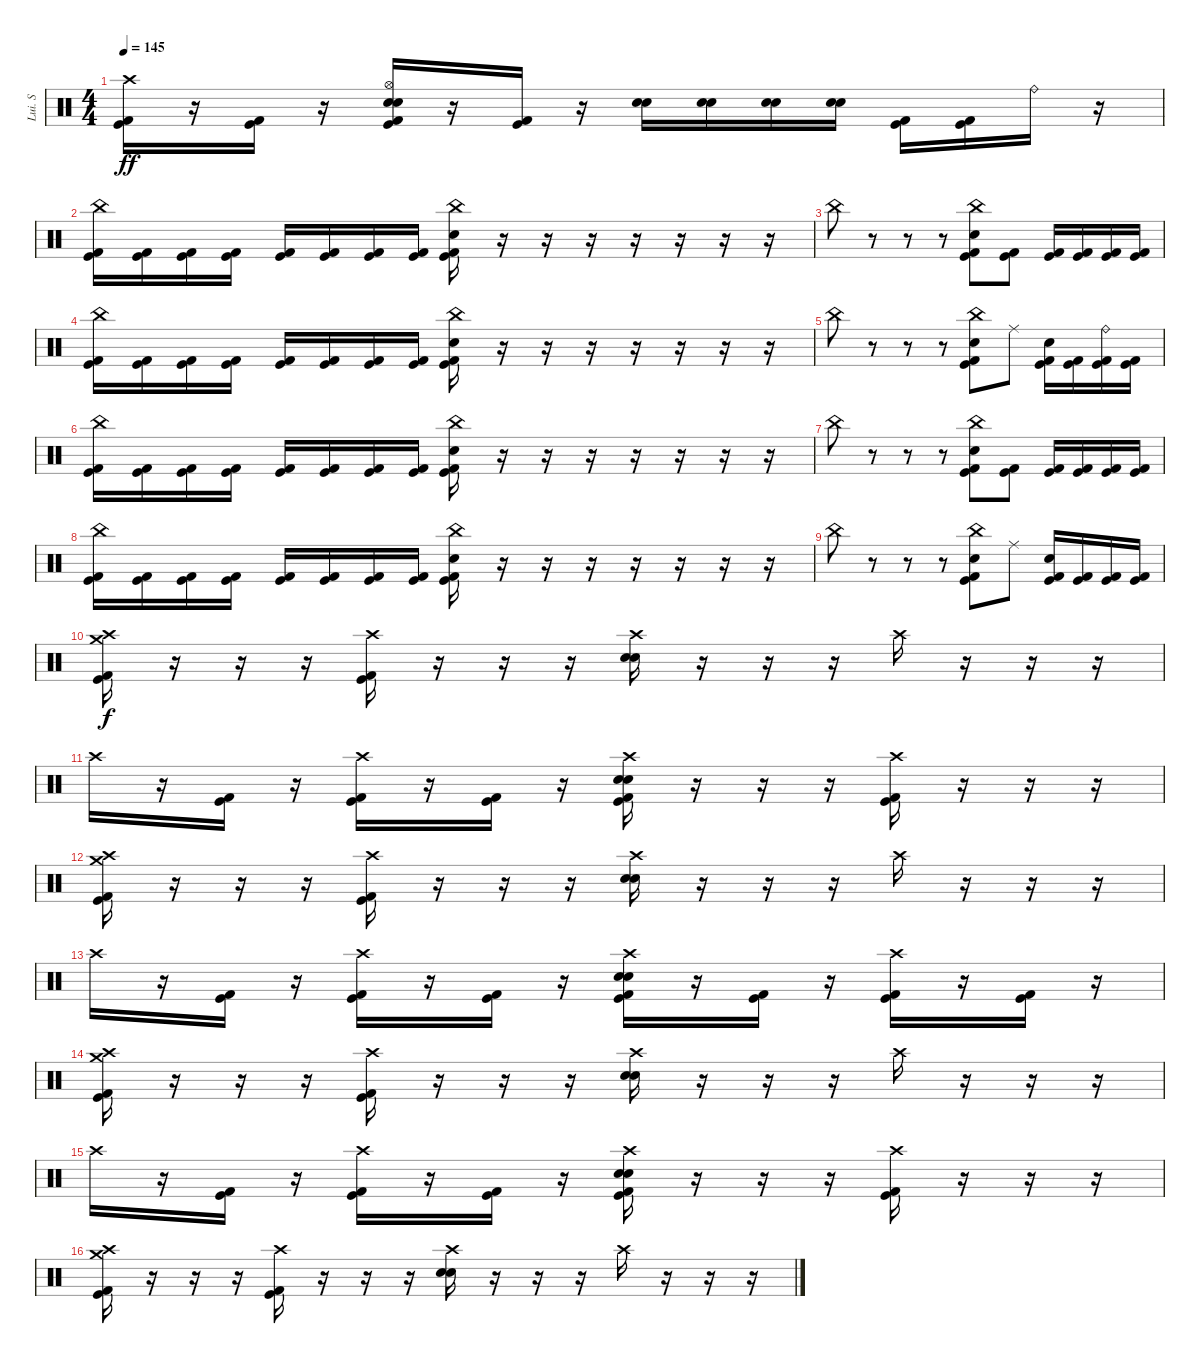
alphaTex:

\track ("Lui. S" "Lui. S") {instrument percussion}
\staff {score}
\articulation defaults
\ts (4 4)
\tempo 145
\clef neutral
\ks c
("Crash high (hit)" "Kick (hit)" "Kick (hit) 2").16{dy ff} r.16 ("Kick (hit)" "Kick (hit) 2").16 r.16 ("Hi-Hat (open)" "Snare (hit) 2" "Electric Snare (hit)" "Kick (hit)" "Kick (hit) 2").16 r.16 ("Kick (hit)" "Kick (hit) 2").16 r.16 ("Snare (hit) 2" "Electric Snare (hit)").16 ("Snare (hit) 2" "Electric Snare (hit)").16 ("Snare (hit) 2" "Electric Snare (hit)").16 ("Snare (hit) 2" "Electric Snare (hit)").16 ("Kick (hit)" "Kick (hit) 2").16 ("Kick (hit)" "Kick (hit) 2").16 "Ride (bell)".16 r.16 |
("China (hit)" "Kick (hit)" "Kick (hit) 2").16 ("Kick (hit)" "Kick (hit) 2").16 ("Kick (hit)" "Kick (hit) 2").16 ("Kick (hit)" "Kick (hit) 2").16 ("Kick (hit)" "Kick (hit) 2").16 ("Kick (hit)" "Kick (hit) 2").16 ("Kick (hit)" "Kick (hit) 2").16 ("Kick (hit)" "Kick (hit) 2").16 ("China (hit)" "Electric Snare (hit)" "Kick (hit)" "Kick (hit) 2").16 r.16 r.16 r.16 r.16 r.16 r.16 r.16 |
"China (hit)".8 r.8 r.8 r.8 ("China (hit)" "Electric Snare (hit)" "Kick (hit)" "Kick (hit) 2").8 ("Kick (hit)" "Kick (hit) 2").8 ("Kick (hit)" "Kick (hit) 2").16 ("Kick (hit)" "Kick (hit) 2").16 ("Kick (hit)" "Kick (hit) 2").16 ("Kick (hit)" "Kick (hit) 2").16 |
("China (hit)" "Kick (hit)" "Kick (hit) 2").16 ("Kick (hit)" "Kick (hit) 2").16 ("Kick (hit)" "Kick (hit) 2").16 ("Kick (hit)" "Kick (hit) 2").16 ("Kick (hit)" "Kick (hit) 2").16 ("Kick (hit)" "Kick (hit) 2").16 ("Kick (hit)" "Kick (hit) 2").16 ("Kick (hit)" "Kick (hit) 2").16 ("China (hit)" "Electric Snare (hit)" "Kick (hit)" "Kick (hit) 2").16 r.16 r.16 r.16 r.16 r.16 r.16 r.16 |
"China (hit)".8 r.8 r.8 r.8 ("China (hit)" "Electric Snare (hit)" "Kick (hit)" "Kick (hit) 2").8 "Ride (middle)".8 ("Electric Snare (hit)" "Kick (hit)" "Kick (hit) 2").16 ("Kick (hit)" "Kick (hit) 2").16 ("Ride (bell)" "Kick (hit)" "Kick (hit) 2").16 ("Kick (hit)" "Kick (hit) 2").16 |
("China (hit)" "Kick (hit)" "Kick (hit) 2").16 ("Kick (hit)" "Kick (hit) 2").16 ("Kick (hit)" "Kick (hit) 2").16 ("Kick (hit)" "Kick (hit) 2").16 ("Kick (hit)" "Kick (hit) 2").16 ("Kick (hit)" "Kick (hit) 2").16 ("Kick (hit)" "Kick (hit) 2").16 ("Kick (hit)" "Kick (hit) 2").16 ("China (hit)" "Electric Snare (hit)" "Kick (hit)" "Kick (hit) 2").16 r.16 r.16 r.16 r.16 r.16 r.16 r.16 |
"China (hit)".8 r.8 r.8 r.8 ("China (hit)" "Electric Snare (hit)" "Kick (hit)" "Kick (hit) 2").8 ("Kick (hit)" "Kick (hit) 2").8 ("Kick (hit)" "Kick (hit) 2").16 ("Kick (hit)" "Kick (hit) 2").16 ("Kick (hit)" "Kick (hit) 2").16 ("Kick (hit)" "Kick (hit) 2").16 |
("China (hit)" "Kick (hit)" "Kick (hit) 2").16 ("Kick (hit)" "Kick (hit) 2").16 ("Kick (hit)" "Kick (hit) 2").16 ("Kick (hit)" "Kick (hit) 2").16 ("Kick (hit)" "Kick (hit) 2").16 ("Kick (hit)" "Kick (hit) 2").16 ("Kick (hit)" "Kick (hit) 2").16 ("Kick (hit)" "Kick (hit) 2").16 ("China (hit)" "Electric Snare (hit)" "Kick (hit)" "Kick (hit) 2").16 r.16 r.16 r.16 r.16 r.16 r.16 r.16 |
"China (hit)".8 r.8 r.8 r.8 ("China (hit)" "Electric Snare (hit)" "Kick (hit)" "Kick (hit) 2").8 "Ride (middle)".8 ("Electric Snare (hit)" "Kick (hit)" "Kick (hit) 2").16 ("Kick (hit)" "Kick (hit) 2").16 ("Kick (hit)" "Kick (hit) 2").16 ("Kick (hit)" "Kick (hit) 2").16 |
("Crash high (hit)" "Crash medium (hit)" "Kick (hit)" "Kick (hit) 2").16{dy f} r.16 r.16 r.16 ("Crash high (hit)" "Kick (hit)" "Kick (hit) 2").16 r.16 r.16 r.16 ("Crash high (hit)" "Electric Snare (hit)" "Snare (hit) 2").16 r.16 r.16 r.16 "Crash high (hit)".16 r.16 r.16 r.16 |
"Crash high (hit)".16 r.16 ("Kick (hit)" "Kick (hit) 2").16 r.16 ("Crash high (hit)" "Kick (hit)" "Kick (hit) 2").16 r.16 ("Kick (hit)" "Kick (hit) 2").16 r.16 ("Crash high (hit)" "Electric Snare (hit)" "Snare (hit) 2" "Kick (hit)" "Kick (hit) 2").16 r.16 r.16 r.16 ("Crash high (hit)" "Kick (hit)" "Kick (hit) 2").16 r.16 r.16 r.16 |
("Crash high (hit)" "Crash medium (hit)" "Kick (hit)" "Kick (hit) 2").16 r.16 r.16 r.16 ("Crash high (hit)" "Kick (hit)" "Kick (hit) 2").16 r.16 r.16 r.16 ("Crash high (hit)" "Electric Snare (hit)" "Snare (hit) 2").16 r.16 r.16 r.16 "Crash high (hit)".16 r.16 r.16 r.16 |
"Crash high (hit)".16 r.16 ("Kick (hit)" "Kick (hit) 2").16 r.16 ("Crash high (hit)" "Kick (hit)" "Kick (hit) 2").16 r.16 ("Kick (hit)" "Kick (hit) 2").16 r.16 ("Crash high (hit)" "Electric Snare (hit)" "Snare (hit) 2" "Kick (hit)" "Kick (hit) 2").16 r.16 ("Kick (hit)" "Kick (hit) 2").16 r.16 ("Crash high (hit)" "Kick (hit)" "Kick (hit) 2").16 r.16 ("Kick (hit)" "Kick (hit) 2").16 r.16 |
("Crash high (hit)" "Crash medium (hit)" "Kick (hit)" "Kick (hit) 2").16 r.16 r.16 r.16 ("Crash high (hit)" "Kick (hit)" "Kick (hit) 2").16 r.16 r.16 r.16 ("Crash high (hit)" "Electric Snare (hit)" "Snare (hit) 2").16 r.16 r.16 r.16 "Crash high (hit)".16 r.16 r.16 r.16 |
"Crash high (hit)".16 r.16 ("Kick (hit)" "Kick (hit) 2").16 r.16 ("Crash high (hit)" "Kick (hit)" "Kick (hit) 2").16 r.16 ("Kick (hit)" "Kick (hit) 2").16 r.16 ("Crash high (hit)" "Electric Snare (hit)" "Snare (hit) 2" "Kick (hit)" "Kick (hit) 2").16 r.16 r.16 r.16 ("Crash high (hit)" "Kick (hit)" "Kick (hit) 2").16 r.16 r.16 r.16 |
("Crash high (hit)" "Crash medium (hit)" "Kick (hit)" "Kick (hit) 2").16 r.16 r.16 r.16 ("Crash high (hit)" "Kick (hit)" "Kick (hit) 2").16 r.16 r.16 r.16 ("Crash high (hit)" "Electric Snare (hit)" "Snare (hit) 2").16 r.16 r.16 r.16 "Crash high (hit)".16 r.16 r.16 r.16
